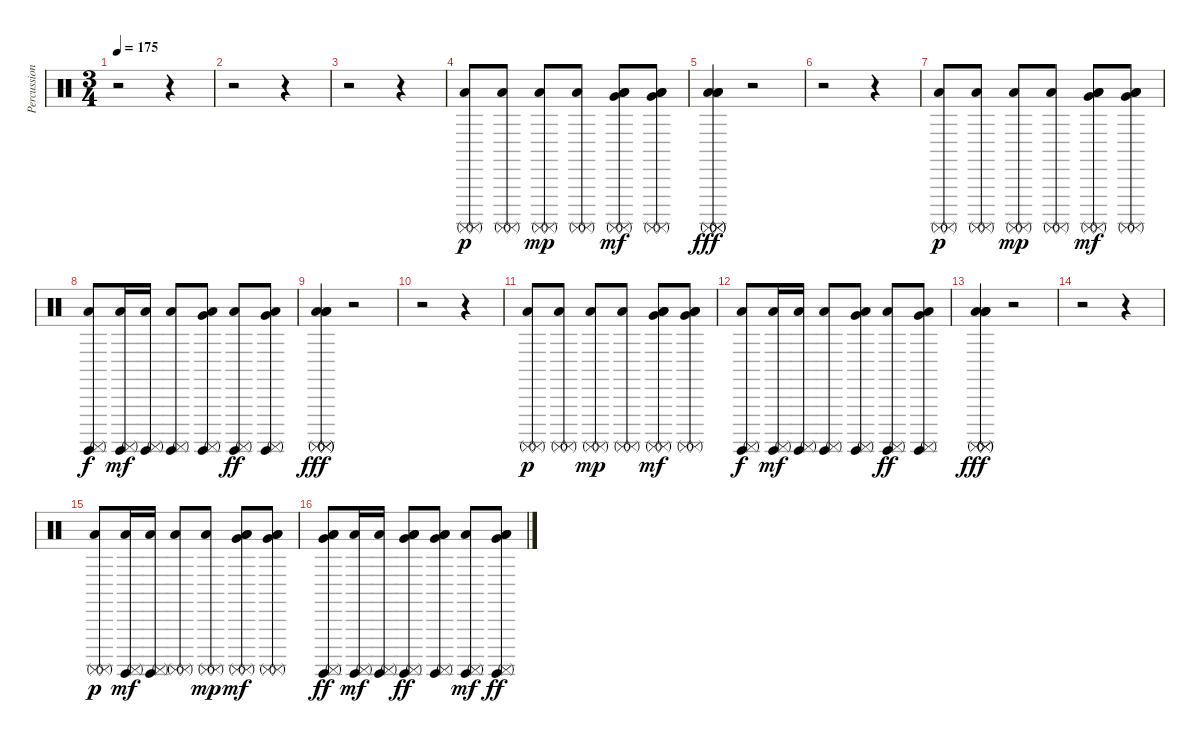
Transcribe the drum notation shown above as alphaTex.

\track ("Percussion" "Percussion") {instrument percussion}
\staff {score}
\articulation defaults
\ts (3 4)
\tempo 175
\clef neutral
\ks c
r.2{dy p} r.4 |
r.2 r.4 |
r.2 r.4 |
("Low Floor Tom (hit)" "Surdo (mute)" "Surdo (mute)").8 ("Low Floor Tom (hit)" "Surdo (mute)" "Surdo (mute)").8 ("Low Floor Tom (hit)" "Surdo (mute)" "Surdo (mute)").8{dy mp} ("Low Floor Tom (hit)" "Surdo (mute)" "Surdo (mute)").8 ("Very Low Tom (hit)" "Low Floor Tom (hit)" "Low Floor Tom (hit)" "Surdo (mute)" "Surdo (mute)").8{dy mf} ("Very Low Tom (hit)" "Low Floor Tom (hit)" "Low Floor Tom (hit)" "Surdo (mute)" "Surdo (mute)").8 |
("Low Floor Tom (hit)" "Surdo (mute)" "Low Floor Tom (hit)" "Surdo (mute)" "Low Floor Tom (hit)" "Surdo (mute)").4{dy fff} r.2 |
r.2 r.4 |
("Low Floor Tom (hit)" "Surdo (mute)" "Surdo (mute)").8{dy p} ("Low Floor Tom (hit)" "Surdo (mute)" "Surdo (mute)").8 ("Low Floor Tom (hit)" "Surdo (mute)" "Surdo (mute)").8{dy mp} ("Low Floor Tom (hit)" "Surdo (mute)" "Surdo (mute)").8 ("Very Low Tom (hit)" "Low Floor Tom (hit)" "Low Floor Tom (hit)" "Surdo (mute)" "Surdo (mute)").8{dy mf} ("Very Low Tom (hit)" "Low Floor Tom (hit)" "Low Floor Tom (hit)" "Surdo (mute)" "Surdo (mute)").8 |
("Low Floor Tom (hit)" "Surdo (hit)" "Surdo (mute)").8{dy f} ("Low Floor Tom (hit)" "Surdo (hit)" "Surdo (mute)").16{dy mf} ("Low Floor Tom (hit)" "Surdo (hit)" "Surdo (mute)").16 ("Low Floor Tom (hit)" "Surdo (hit)" "Surdo (mute)").8 ("Very Low Tom (hit)" "Low Floor Tom (hit)" "Surdo (hit)" "Surdo (mute)").8 ("Low Floor Tom (hit)" "Surdo (hit)" "Surdo (mute)").8{dy ff} ("Very Low Tom (hit)" "Low Floor Tom (hit)" "Surdo (hit)" "Surdo (mute)").8 |
("Low Floor Tom (hit)" "Surdo (mute)" "Low Floor Tom (hit)" "Surdo (mute)" "Low Floor Tom (hit)" "Surdo (mute)").4{dy fff} r.2 |
r.2 r.4 |
("Low Floor Tom (hit)" "Surdo (mute)" "Surdo (mute)").8{dy p} ("Low Floor Tom (hit)" "Surdo (mute)" "Surdo (mute)").8 ("Low Floor Tom (hit)" "Surdo (mute)" "Surdo (mute)").8{dy mp} ("Low Floor Tom (hit)" "Surdo (mute)" "Surdo (mute)").8 ("Very Low Tom (hit)" "Low Floor Tom (hit)" "Low Floor Tom (hit)" "Surdo (mute)" "Surdo (mute)").8{dy mf} ("Very Low Tom (hit)" "Low Floor Tom (hit)" "Low Floor Tom (hit)" "Surdo (mute)" "Surdo (mute)").8 |
("Low Floor Tom (hit)" "Surdo (hit)" "Surdo (mute)").8{dy f} ("Low Floor Tom (hit)" "Surdo (hit)" "Surdo (mute)").16{dy mf} ("Low Floor Tom (hit)" "Surdo (hit)" "Surdo (mute)").16 ("Low Floor Tom (hit)" "Surdo (hit)" "Surdo (mute)").8 ("Very Low Tom (hit)" "Low Floor Tom (hit)" "Surdo (hit)" "Surdo (mute)").8 ("Low Floor Tom (hit)" "Surdo (hit)" "Surdo (mute)").8{dy ff} ("Very Low Tom (hit)" "Low Floor Tom (hit)" "Surdo (hit)" "Surdo (mute)").8 |
("Low Floor Tom (hit)" "Surdo (mute)" "Low Floor Tom (hit)" "Surdo (mute)" "Low Floor Tom (hit)" "Surdo (mute)").4{dy fff} r.2 |
r.2 r.4 |
("Low Floor Tom (hit)" "Surdo (mute)" "Surdo (mute)").8{dy p} ("Low Floor Tom (hit)" "Surdo (hit)" "Surdo (mute)").16{dy mf} ("Low Floor Tom (hit)" "Surdo (hit)" "Surdo (mute)").16 ("Low Floor Tom (hit)" "Surdo (mute)" "Surdo (mute)").8 ("Low Floor Tom (hit)" "Surdo (mute)" "Surdo (mute)").8{dy mp} ("Very Low Tom (hit)" "Low Floor Tom (hit)" "Low Floor Tom (hit)" "Surdo (mute)" "Surdo (mute)").8{dy mf} ("Very Low Tom (hit)" "Low Floor Tom (hit)" "Low Floor Tom (hit)" "Surdo (mute)" "Surdo (mute)").8 |
("Very Low Tom (hit)" "Low Floor Tom (hit)" "Low Floor Tom (hit)" "Surdo (hit)" "Surdo (mute)").8{dy ff} ("Low Floor Tom (hit)" "Surdo (hit)" "Surdo (mute)").16{dy mf} ("Low Floor Tom (hit)" "Surdo (hit)" "Surdo (mute)").16 ("Very Low Tom (hit)" "Low Floor Tom (hit)" "Low Floor Tom (hit)" "Surdo (hit)" "Surdo (mute)").8{dy ff} ("Very Low Tom (hit)" "Low Floor Tom (hit)" "Low Floor Tom (hit)" "Surdo (hit)" "Surdo (mute)").8 ("Low Floor Tom (hit)" "Surdo (hit)" "Surdo (mute)").8{dy mf} ("Very Low Tom (hit)" "Low Floor Tom (hit)" "Low Floor Tom (hit)" "Surdo (hit)" "Surdo (mute)").8{dy ff}
